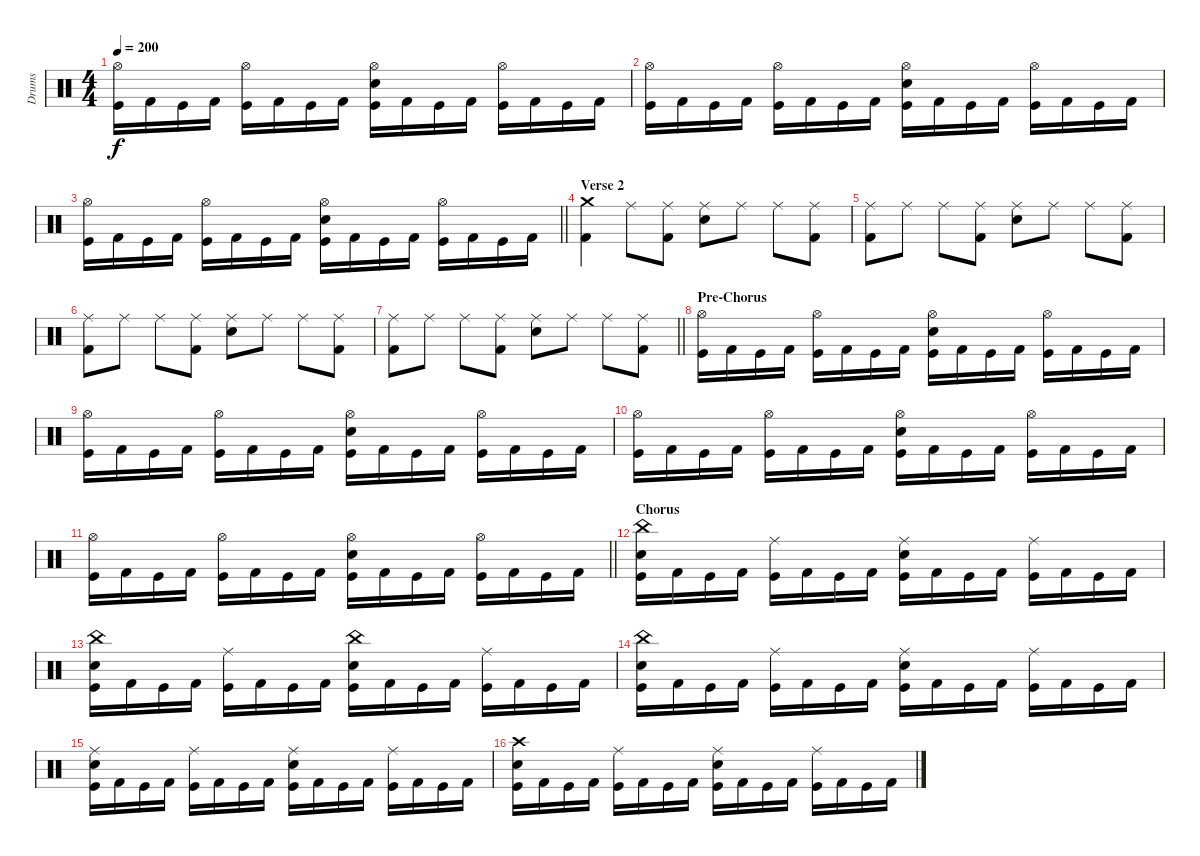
\track ("Drums" "Drums") {instrument percussion}
\staff {score}
\articulation defaults
\ts (4 4)
\tempo 200
\clef neutral
\ks c
("Hi-Hat (open)" "Kick (hit)").16{dy f} "Kick (hit) 2".16 "Kick (hit)".16 "Kick (hit) 2".16 ("Hi-Hat (open)" "Kick (hit)").16 "Kick (hit) 2".16 "Kick (hit)".16 "Kick (hit) 2".16 ("Hi-Hat (open)" "Electric Snare (hit)" "Kick (hit)").16 "Kick (hit) 2".16 "Kick (hit)".16 "Kick (hit) 2".16 ("Hi-Hat (open)" "Kick (hit)").16 "Kick (hit) 2".16 "Kick (hit)".16 "Kick (hit) 2".16 |
("Hi-Hat (open)" "Kick (hit)").16 "Kick (hit) 2".16 "Kick (hit)".16 "Kick (hit) 2".16 ("Hi-Hat (open)" "Kick (hit)").16 "Kick (hit) 2".16 "Kick (hit)".16 "Kick (hit) 2".16 ("Hi-Hat (open)" "Electric Snare (hit)" "Kick (hit)").16 "Kick (hit) 2".16 "Kick (hit)".16 "Kick (hit) 2".16 ("Hi-Hat (open)" "Kick (hit)").16 "Kick (hit) 2".16 "Kick (hit)".16 "Kick (hit) 2".16 |
\barLineRight lightlight
("Hi-Hat (open)" "Kick (hit)").16 "Kick (hit) 2".16 "Kick (hit)".16 "Kick (hit) 2".16 ("Hi-Hat (open)" "Kick (hit)").16 "Kick (hit) 2".16 "Kick (hit)".16 "Kick (hit) 2".16 ("Hi-Hat (open)" "Electric Snare (hit)" "Kick (hit)").16 "Kick (hit) 2".16 "Kick (hit)".16 "Kick (hit) 2".16 ("Hi-Hat (open)" "Kick (hit)").16 "Kick (hit) 2".16 "Kick (hit)".16 "Kick (hit) 2".16 |
\section ("" "Verse 2")
("Crash medium (hit)" "Kick (hit) 2").4 "Ride (middle)".8 ("Ride (middle)" "Kick (hit) 2").8 ("Ride (middle)" "Electric Snare (hit)").8 "Ride (middle)".8 "Ride (middle)".8 ("Ride (middle)" "Kick (hit) 2").8 |
("Ride (middle)" "Kick (hit) 2").8 "Ride (middle)".8 "Ride (middle)".8 ("Ride (middle)" "Kick (hit) 2").8 ("Ride (middle)" "Electric Snare (hit)").8 "Ride (middle)".8 "Ride (middle)".8 ("Ride (middle)" "Kick (hit) 2").8 |
("Ride (middle)" "Kick (hit) 2").8 "Ride (middle)".8 "Ride (middle)".8 ("Ride (middle)" "Kick (hit) 2").8 ("Ride (middle)" "Electric Snare (hit)").8 "Ride (middle)".8 "Ride (middle)".8 ("Ride (middle)" "Kick (hit) 2").8 |
\barLineRight lightlight
("Ride (middle)" "Kick (hit) 2").8 "Ride (middle)".8 "Ride (middle)".8 ("Ride (middle)" "Kick (hit) 2").8 ("Ride (middle)" "Electric Snare (hit)").8 "Ride (middle)".8 "Ride (middle)".8 ("Ride (middle)" "Kick (hit) 2").8 |
\section ("" "Pre-Chorus")
("Hi-Hat (open)" "Kick (hit)").16 "Kick (hit) 2".16 "Kick (hit)".16 "Kick (hit) 2".16 ("Hi-Hat (open)" "Kick (hit)").16 "Kick (hit) 2".16 "Kick (hit)".16 "Kick (hit) 2".16 ("Hi-Hat (open)" "Electric Snare (hit)" "Kick (hit)").16 "Kick (hit) 2".16 "Kick (hit)".16 "Kick (hit) 2".16 ("Hi-Hat (open)" "Kick (hit)").16 "Kick (hit) 2".16 "Kick (hit)".16 "Kick (hit) 2".16 |
("Hi-Hat (open)" "Kick (hit)").16 "Kick (hit) 2".16 "Kick (hit)".16 "Kick (hit) 2".16 ("Hi-Hat (open)" "Kick (hit)").16 "Kick (hit) 2".16 "Kick (hit)".16 "Kick (hit) 2".16 ("Hi-Hat (open)" "Electric Snare (hit)" "Kick (hit)").16 "Kick (hit) 2".16 "Kick (hit)".16 "Kick (hit) 2".16 ("Hi-Hat (open)" "Kick (hit)").16 "Kick (hit) 2".16 "Kick (hit)".16 "Kick (hit) 2".16 |
("Hi-Hat (open)" "Kick (hit)").16 "Kick (hit) 2".16 "Kick (hit)".16 "Kick (hit) 2".16 ("Hi-Hat (open)" "Kick (hit)").16 "Kick (hit) 2".16 "Kick (hit)".16 "Kick (hit) 2".16 ("Hi-Hat (open)" "Electric Snare (hit)" "Kick (hit)").16 "Kick (hit) 2".16 "Kick (hit)".16 "Kick (hit) 2".16 ("Hi-Hat (open)" "Kick (hit)").16 "Kick (hit) 2".16 "Kick (hit)".16 "Kick (hit) 2".16 |
\barLineRight lightlight
("Hi-Hat (open)" "Kick (hit)").16 "Kick (hit) 2".16 "Kick (hit)".16 "Kick (hit) 2".16 ("Hi-Hat (open)" "Kick (hit)").16 "Kick (hit) 2".16 "Kick (hit)".16 "Kick (hit) 2".16 ("Hi-Hat (open)" "Electric Snare (hit)" "Kick (hit)").16 "Kick (hit) 2".16 "Kick (hit)".16 "Kick (hit) 2".16 ("Hi-Hat (open)" "Kick (hit)").16 "Kick (hit) 2".16 "Kick (hit)".16 "Kick (hit) 2".16 |
\section ("" "Chorus")
("China (hit)" "Electric Snare (hit)" "Kick (hit)").16 "Kick (hit) 2".16 "Kick (hit)".16 "Kick (hit) 2".16 ("Ride (middle)" "Kick (hit)").16 "Kick (hit) 2".16 "Kick (hit)".16 "Kick (hit) 2".16 ("Ride (middle)" "Electric Snare (hit)" "Kick (hit)").16 "Kick (hit) 2".16 "Kick (hit)".16 "Kick (hit) 2".16 ("Ride (middle)" "Kick (hit)").16 "Kick (hit) 2".16 "Kick (hit)".16 "Kick (hit) 2".16 |
("China (hit)" "Electric Snare (hit)" "Kick (hit)").16 "Kick (hit) 2".16 "Kick (hit)".16 "Kick (hit) 2".16 ("Ride (middle)" "Kick (hit)").16 "Kick (hit) 2".16 "Kick (hit)".16 "Kick (hit) 2".16 ("China (hit)" "Electric Snare (hit)" "Kick (hit)").16 "Kick (hit) 2".16 "Kick (hit)".16 "Kick (hit) 2".16 ("Ride (middle)" "Kick (hit)").16 "Kick (hit) 2".16 "Kick (hit)".16 "Kick (hit) 2".16 |
("China (hit)" "Electric Snare (hit)" "Kick (hit)").16 "Kick (hit) 2".16 "Kick (hit)".16 "Kick (hit) 2".16 ("Ride (middle)" "Kick (hit)").16 "Kick (hit) 2".16 "Kick (hit)".16 "Kick (hit) 2".16 ("Ride (middle)" "Electric Snare (hit)" "Kick (hit)").16 "Kick (hit) 2".16 "Kick (hit)".16 "Kick (hit) 2".16 ("Ride (middle)" "Kick (hit)").16 "Kick (hit) 2".16 "Kick (hit)".16 "Kick (hit) 2".16 |
("Ride (middle)" "Electric Snare (hit)" "Kick (hit)").16 "Kick (hit) 2".16 "Kick (hit)".16 "Kick (hit) 2".16 ("Ride (middle)" "Kick (hit)").16 "Kick (hit) 2".16 "Kick (hit)".16 "Kick (hit) 2".16 ("Ride (middle)" "Electric Snare (hit)" "Kick (hit)").16 "Kick (hit) 2".16 "Kick (hit)".16 "Kick (hit) 2".16 ("Ride (middle)" "Kick (hit)").16 "Kick (hit) 2".16 "Kick (hit)".16 "Kick (hit) 2".16 |
("Crash high (hit)" "Electric Snare (hit)" "Kick (hit)").16 "Kick (hit) 2".16 "Kick (hit)".16 "Kick (hit) 2".16 ("Ride (middle)" "Kick (hit)").16 "Kick (hit) 2".16 "Kick (hit)".16 "Kick (hit) 2".16 ("Ride (middle)" "Electric Snare (hit)" "Kick (hit)").16 "Kick (hit) 2".16 "Kick (hit)".16 "Kick (hit) 2".16 ("Ride (middle)" "Kick (hit)").16 "Kick (hit) 2".16 "Kick (hit)".16 "Kick (hit) 2".16
